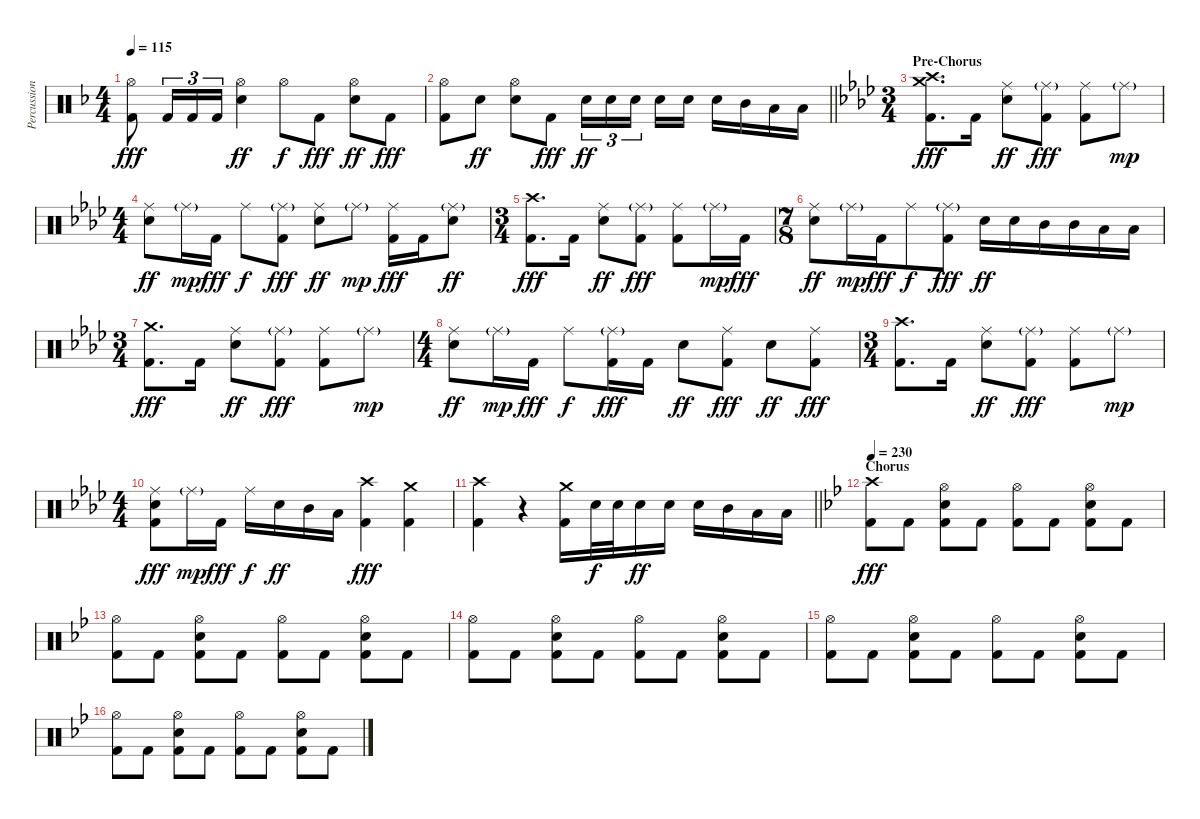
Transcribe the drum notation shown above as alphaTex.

\track ("Percussion" "Percussion") {instrument percussion}
\staff {score}
\articulation defaults
\ts (4 4)
\tempo 115
\clef neutral
\ks dminor
("Hi-Hat (open)" "Kick (hit) 2").8{dy fff} "Kick (hit) 2".16{tu (3 2)} "Kick (hit) 2".16{tu (3 2)} "Kick (hit) 2".16{tu (3 2)} ("Hi-Hat (open)" "Electric Snare (hit)").4{dy ff} "Hi-Hat (open)".8{dy f} "Kick (hit) 2".8{dy fff} ("Hi-Hat (open)" "Electric Snare (hit)").8{dy ff} "Kick (hit) 2".8{dy fff} |
\barLineRight lightlight
("Hi-Hat (open)" "Kick (hit) 2").8 "Electric Snare (hit)".8{dy ff} ("Hi-Hat (open)" "Electric Snare (hit)").8 "Kick (hit) 2".8{dy fff} "Electric Snare (hit)".16{tu (3 2) dy ff} "Electric Snare (hit)".16{tu (3 2)} "Electric Snare (hit)".16{tu (3 2) beam splitsecondary} "Electric Snare (hit)".16 "Electric Snare (hit)".16 "Electric Snare (hit)".16 "Mid Tom (hit)".16 "Low Tom (hit)".16 "Low Tom (hit)".16 |
\ts (3 4)
\section ("" "Pre-Chorus")
\ks fminor
("Crash high (hit)" "Crash medium (hit)" "Kick (hit) 2").8{d dy fff} "Kick (hit) 2".16 ("Ride (middle)" "Electric Snare (hit)").8{dy ff} ("Ride (middle)"{g} "Kick (hit) 2").8{dy fff} ("Ride (middle)" "Kick (hit) 2").8 "Ride (middle)"{g}.8{dy mp} |
\ts (4 4)
("Ride (middle)" "Electric Snare (hit)").8{dy ff} "Ride (middle)"{g}.16{dy mp} "Kick (hit) 2".16{dy fff} "Ride (middle)".8{dy f} ("Ride (middle)"{g} "Kick (hit) 2").8{dy fff} ("Ride (middle)" "Electric Snare (hit)").8{dy ff} "Ride (middle)"{g}.8{dy mp} ("Ride (middle)" "Kick (hit) 2").16{dy fff} "Kick (hit) 2".16 ("Ride (middle)"{g} "Electric Snare (hit)").8{dy ff} |
\ts (3 4)
("Crash high (hit)" "Kick (hit) 2").8{d dy fff} "Kick (hit) 2".16 ("Ride (middle)" "Electric Snare (hit)").8{dy ff} ("Ride (middle)"{g} "Kick (hit) 2").8{dy fff} ("Ride (middle)" "Kick (hit) 2").8 "Ride (middle)"{g}.16{dy mp} "Kick (hit) 2".16{dy fff} |
\ts (7 8)
("Ride (middle)" "Electric Snare (hit)").8{dy ff} "Ride (middle)"{g}.16{dy mp} "Kick (hit) 2".16{dy fff} "Ride (middle)".8{dy f} ("Ride (middle)"{g} "Kick (hit) 2").8{dy fff} "Electric Snare (hit)".16{dy ff} "Electric Snare (hit)".16 "Mid Tom (hit)".16 "Mid Tom (hit)".16 "Low Tom (hit)".16 "Low Tom (hit)".16 |
\ts (3 4)
("Crash medium (hit)" "Kick (hit) 2").8{d dy fff} "Kick (hit) 2".16 ("Ride (middle)" "Electric Snare (hit)").8{dy ff} ("Ride (middle)"{g} "Kick (hit) 2").8{dy fff} ("Ride (middle)" "Kick (hit) 2").8 "Ride (middle)"{g}.8{dy mp} |
\ts (4 4)
("Ride (middle)" "Electric Snare (hit)").8{dy ff} "Ride (middle)"{g}.16{dy mp} "Kick (hit) 2".16{dy fff} "Ride (middle)".8{dy f} ("Ride (middle)"{g} "Kick (hit) 2").16{dy fff} "Kick (hit) 2".16 "Electric Snare (hit)".8{dy ff} ("Ride (middle)" "Kick (hit) 2").8{dy fff} "Electric Snare (hit)".8{dy ff} ("Ride (middle)" "Kick (hit) 2").8{dy fff} |
\ts (3 4)
("Crash high (hit)" "Kick (hit) 2").8{d} "Kick (hit) 2".16 ("Ride (middle)" "Electric Snare (hit)").8{dy ff} ("Ride (middle)"{g} "Kick (hit) 2").8{dy fff} ("Ride (middle)" "Kick (hit) 2").8 "Ride (middle)"{g}.8{dy mp} |
\ts (4 4)
("Ride (middle)" "Electric Snare (hit)" "Kick (hit) 2").8{dy fff} "Ride (middle)"{g}.16{dy mp} "Kick (hit) 2".16{dy fff} "Ride (middle)".16{dy f} "Electric Snare (hit)".16{dy ff} "Mid Tom (hit)".16 "Low Tom (hit)".16 ("Crash high (hit)" "Kick (hit) 2").4{dy fff} ("Crash medium (hit)" "Kick (hit) 2").4 |
\barLineRight lightlight
("Crash high (hit)" "Kick (hit) 2").4 r.4 ("Crash medium (hit)" "Kick (hit) 2").16 "Electric Snare (hit)".32{dy f} "Electric Snare (hit)".32 "Electric Snare (hit)".16{dy ff} "Electric Snare (hit)".16 "Electric Snare (hit)".16 "Mid Tom (hit)".16 "Low Tom (hit)".16 "Low Tom (hit)".16 |
\section ("" "Chorus")
\tempo 230
\ks gminor
("Crash high (hit)" "Kick (hit) 2").8{dy fff} "Kick (hit) 2".8 ("Hi-Hat (open)" "Electric Snare (hit)" "Kick (hit) 2").8 "Kick (hit) 2".8 ("Hi-Hat (open)" "Kick (hit) 2").8 "Kick (hit) 2".8 ("Hi-Hat (open)" "Electric Snare (hit)" "Kick (hit) 2").8 "Kick (hit) 2".8 |
("Hi-Hat (open)" "Kick (hit) 2").8 "Kick (hit) 2".8 ("Hi-Hat (open)" "Electric Snare (hit)" "Kick (hit) 2").8 "Kick (hit) 2".8 ("Hi-Hat (open)" "Kick (hit) 2").8 "Kick (hit) 2".8 ("Hi-Hat (open)" "Electric Snare (hit)" "Kick (hit) 2").8 "Kick (hit) 2".8 |
("Hi-Hat (open)" "Kick (hit) 2").8 "Kick (hit) 2".8 ("Hi-Hat (open)" "Electric Snare (hit)" "Kick (hit) 2").8 "Kick (hit) 2".8 ("Hi-Hat (open)" "Kick (hit) 2").8 "Kick (hit) 2".8 ("Hi-Hat (open)" "Electric Snare (hit)" "Kick (hit) 2").8 "Kick (hit) 2".8 |
("Hi-Hat (open)" "Kick (hit) 2").8 "Kick (hit) 2".8 ("Hi-Hat (open)" "Electric Snare (hit)" "Kick (hit) 2").8 "Kick (hit) 2".8 ("Hi-Hat (open)" "Kick (hit) 2").8 "Kick (hit) 2".8 ("Hi-Hat (open)" "Electric Snare (hit)" "Kick (hit) 2").8 "Kick (hit) 2".8 |
("Hi-Hat (open)" "Kick (hit) 2").8 "Kick (hit) 2".8 ("Hi-Hat (open)" "Electric Snare (hit)" "Kick (hit) 2").8 "Kick (hit) 2".8 ("Hi-Hat (open)" "Kick (hit) 2").8 "Kick (hit) 2".8 ("Hi-Hat (open)" "Electric Snare (hit)" "Kick (hit) 2").8 "Kick (hit) 2".8
